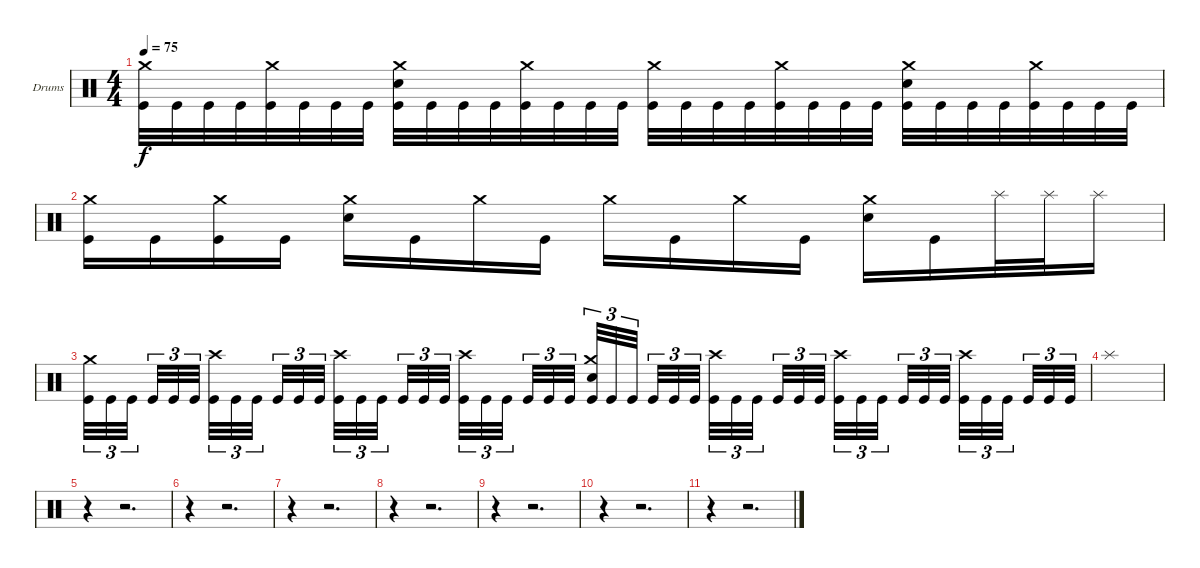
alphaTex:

\bracketExtendMode groupsimilarinstruments
\firstSystemTrackNameOrientation horizontal
\otherSystemsTrackNameOrientation horizontal
\track ("Drumkit" "Drums") {instrument percussion}
\staff {score}
\articulation defaults
\ts (4 4)
\tempo 75
\clef neutral
\ks c
("Kick (hit)" "Crash medium (hit)").32{dy f} "Kick (hit)".32 "Kick (hit)".32 "Kick (hit)".32 ("Kick (hit)" "Crash medium (hit)").32 "Kick (hit)".32 "Kick (hit)".32 "Kick (hit)".32 ("Kick (hit)" "Crash medium (hit)" "Snare (hit) 2").32 "Kick (hit)".32 "Kick (hit)".32 "Kick (hit)".32 ("Kick (hit)" "Crash medium (hit)").32 "Kick (hit)".32 "Kick (hit)".32 "Kick (hit)".32 ("Kick (hit)" "Crash medium (hit)").32 "Kick (hit)".32 "Kick (hit)".32 "Kick (hit)".32 ("Kick (hit)" "Crash medium (hit)").32 "Kick (hit)".32 "Kick (hit)".32 "Kick (hit)".32 ("Kick (hit)" "Crash medium (hit)" "Snare (hit) 2").32 "Kick (hit)".32 "Kick (hit)".32 "Kick (hit)".32 ("Kick (hit)" "Crash medium (hit)").32 "Kick (hit)".32 "Kick (hit)".32 "Kick (hit)".32 |
("Kick (hit)" "Crash medium (hit)").16 "Kick (hit)".16 ("Kick (hit)" "Crash medium (hit)").16 "Kick (hit)".16 ("Snare (hit) 2" "Crash medium (hit)").16 "Kick (hit)".16 "Crash medium (hit)".16 "Kick (hit)".16 "Crash medium (hit)".16 "Kick (hit)".16 "Crash medium (hit)".16 "Kick (hit)".16 ("Snare (hit) 2" "Crash medium (hit)").16 "Kick (hit)".16 "Splash (hit)".32 "Splash (hit)".32 "Splash (hit)".16 |
("Kick (hit)" "Crash medium (hit)").32{tu (3 2)} "Kick (hit)".32{tu (3 2)} "Kick (hit)".32{tu (3 2)} "Kick (hit)".32{tu (3 2)} "Kick (hit)".32{tu (3 2)} "Kick (hit)".32{tu (3 2)} ("Kick (hit)" "Crash high (hit)").32{tu (3 2)} "Kick (hit)".32{tu (3 2)} "Kick (hit)".32{tu (3 2)} "Kick (hit)".32{tu (3 2)} "Kick (hit)".32{tu (3 2)} "Kick (hit)".32{tu (3 2)} ("Kick (hit)" "Crash high (hit)").32{tu (3 2)} "Kick (hit)".32{tu (3 2)} "Kick (hit)".32{tu (3 2)} "Kick (hit)".32{tu (3 2)} "Kick (hit)".32{tu (3 2)} "Kick (hit)".32{tu (3 2)} ("Kick (hit)" "Crash high (hit)").32{tu (3 2)} "Kick (hit)".32{tu (3 2)} "Kick (hit)".32{tu (3 2)} "Kick (hit)".32{tu (3 2)} "Kick (hit)".32{tu (3 2)} "Kick (hit)".32{tu (3 2)} ("Kick (hit)" "Crash medium (hit)" "Snare (hit) 2").32{tu (3 2)} "Kick (hit)".32{tu (3 2)} "Kick (hit)".32{tu (3 2)} "Kick (hit)".32{tu (3 2)} "Kick (hit)".32{tu (3 2)} "Kick (hit)".32{tu (3 2)} ("Kick (hit)" "Crash high (hit)").32{tu (3 2)} "Kick (hit)".32{tu (3 2)} "Kick (hit)".32{tu (3 2)} "Kick (hit)".32{tu (3 2)} "Kick (hit)".32{tu (3 2)} "Kick (hit)".32{tu (3 2)} ("Kick (hit)" "Crash high (hit)").32{tu (3 2)} "Kick (hit)".32{tu (3 2)} "Kick (hit)".32{tu (3 2)} "Kick (hit)".32{tu (3 2)} "Kick (hit)".32{tu (3 2)} "Kick (hit)".32{tu (3 2)} ("Kick (hit)" "Crash high (hit)").32{tu (3 2)} "Kick (hit)".32{tu (3 2)} "Kick (hit)".32{tu (3 2)} "Kick (hit)".32{tu (3 2)} "Kick (hit)".32{tu (3 2)} "Kick (hit)".32{tu (3 2)} |
"Splash (hit)".1 |
r.4 r.2{d} |
r.4 r.2{d} |
r.4 r.2{d} |
r.4 r.2{d} |
r.4 r.2{d} |
r.4 r.2{d} |
r.4 r.2{d}
